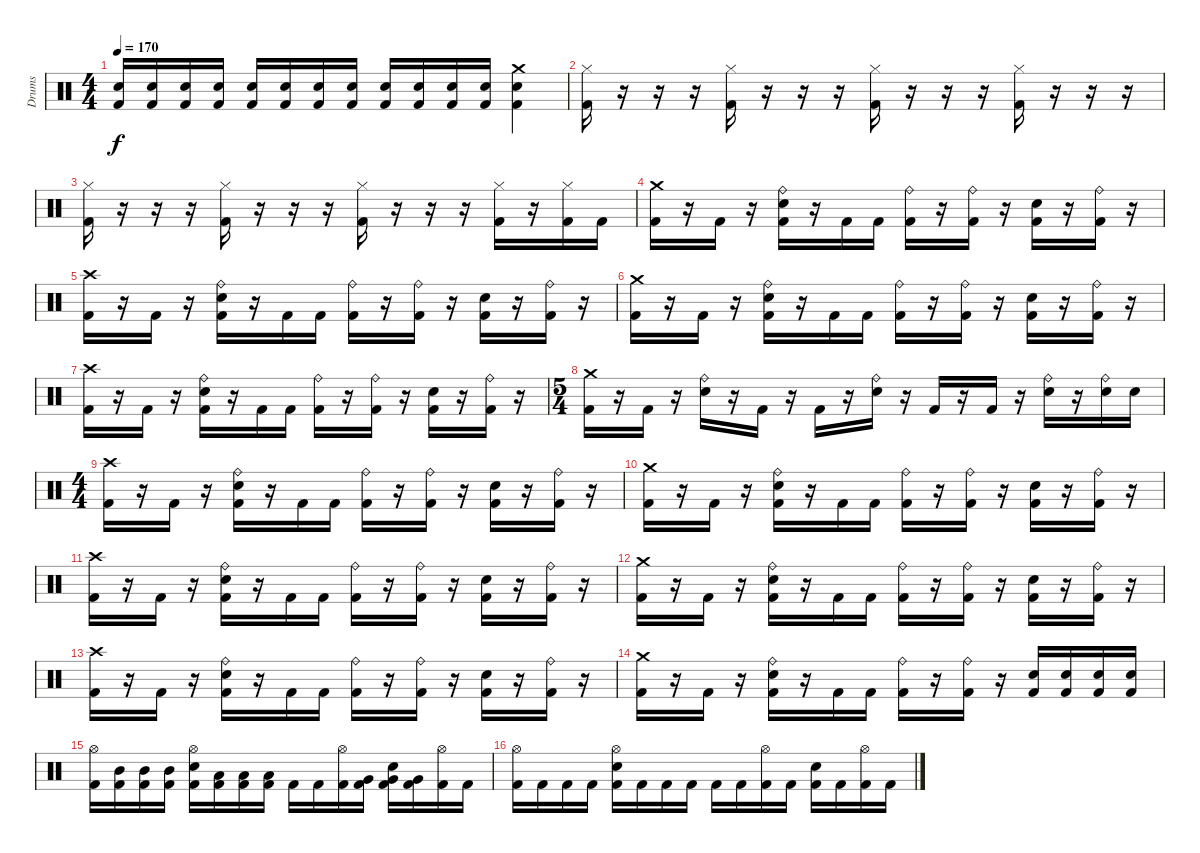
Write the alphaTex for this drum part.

\track ("Drums" "Drums") {instrument percussion}
\staff {score}
\articulation defaults
\ts (4 4)
\tempo 170
\clef neutral
\ks c
("Electric Snare (hit)" "Kick (hit) 2").16{dy f} ("Electric Snare (hit)" "Kick (hit) 2").16 ("Electric Snare (hit)" "Kick (hit) 2").16 ("Electric Snare (hit)" "Kick (hit) 2").16 ("Electric Snare (hit)" "Kick (hit) 2").16 ("Electric Snare (hit)" "Kick (hit) 2").16 ("Electric Snare (hit)" "Kick (hit) 2").16 ("Electric Snare (hit)" "Kick (hit) 2").16 ("Electric Snare (hit)" "Kick (hit) 2").16 ("Electric Snare (hit)" "Kick (hit) 2").16 ("Electric Snare (hit)" "Kick (hit) 2").16 ("Electric Snare (hit)" "Kick (hit) 2").16 ("Crash medium (hit)" "Electric Snare (hit)" "Kick (hit) 2").4 |
("Hi-Hat (closed)" "Kick (hit) 2").16 r.16 r.16 r.16 ("Hi-Hat (closed)" "Kick (hit) 2").16 r.16 r.16 r.16 ("Hi-Hat (closed)" "Kick (hit) 2").16 r.16 r.16 r.16 ("Hi-Hat (closed)" "Kick (hit) 2").16 r.16 r.16 r.16 |
("Hi-Hat (closed)" "Kick (hit) 2").16 r.16 r.16 r.16 ("Hi-Hat (closed)" "Kick (hit) 2").16 r.16 r.16 r.16 ("Hi-Hat (closed)" "Kick (hit) 2").16 r.16 r.16 r.16 ("Hi-Hat (closed)" "Kick (hit) 2").16 r.16 ("Hi-Hat (closed)" "Kick (hit) 2").16 "Kick (hit) 2".16 |
("Crash medium (hit)" "Kick (hit) 2").16 r.16 "Kick (hit) 2".16 r.16 ("Ride (bell)" "Electric Snare (hit)" "Kick (hit) 2").16 r.16 "Kick (hit) 2".16 "Kick (hit) 2".16 ("Ride (bell)" "Kick (hit) 2").16 r.16 ("Ride (bell)" "Kick (hit) 2").16 r.16 ("Electric Snare (hit)" "Kick (hit) 2").16 r.16 ("Ride (bell)" "Kick (hit) 2").16 r.16 |
("Crash high (hit)" "Kick (hit) 2").16 r.16 "Kick (hit) 2".16 r.16 ("Ride (bell)" "Electric Snare (hit)" "Kick (hit) 2").16 r.16 "Kick (hit) 2".16 "Kick (hit) 2".16 ("Ride (bell)" "Kick (hit) 2").16 r.16 ("Ride (bell)" "Kick (hit) 2").16 r.16 ("Electric Snare (hit)" "Kick (hit) 2").16 r.16 ("Ride (bell)" "Kick (hit) 2").16 r.16 |
("Crash medium (hit)" "Kick (hit) 2").16 r.16 "Kick (hit) 2".16 r.16 ("Ride (bell)" "Electric Snare (hit)" "Kick (hit) 2").16 r.16 "Kick (hit) 2".16 "Kick (hit) 2".16 ("Ride (bell)" "Kick (hit) 2").16 r.16 ("Ride (bell)" "Kick (hit) 2").16 r.16 ("Electric Snare (hit)" "Kick (hit) 2").16 r.16 ("Ride (bell)" "Kick (hit) 2").16 r.16 |
("Crash high (hit)" "Kick (hit) 2").16 r.16 "Kick (hit) 2".16 r.16 ("Ride (bell)" "Electric Snare (hit)" "Kick (hit) 2").16 r.16 "Kick (hit) 2".16 "Kick (hit) 2".16 ("Ride (bell)" "Kick (hit) 2").16 r.16 ("Ride (bell)" "Kick (hit) 2").16 r.16 ("Electric Snare (hit)" "Kick (hit) 2").16 r.16 ("Ride (bell)" "Kick (hit) 2").16 r.16 |
\ts (5 4)
("Crash medium (hit)" "Kick (hit) 2").16 r.16 "Kick (hit) 2".16 r.16 ("Ride (bell)" "Electric Snare (hit)").16 r.16 "Kick (hit) 2".16 r.16 "Kick (hit) 2".16 r.16 ("Ride (bell)" "Electric Snare (hit)").16 r.16 "Kick (hit) 2".16 r.16 "Kick (hit) 2".16 r.16 ("Ride (bell)" "Electric Snare (hit)").16 r.16 ("Ride (bell)" "Electric Snare (hit)").16 "Electric Snare (hit)".16 |
\ts (4 4)
("Crash high (hit)" "Kick (hit) 2").16 r.16 "Kick (hit) 2".16 r.16 ("Ride (bell)" "Electric Snare (hit)" "Kick (hit) 2").16 r.16 "Kick (hit) 2".16 "Kick (hit) 2".16 ("Ride (bell)" "Kick (hit) 2").16 r.16 ("Ride (bell)" "Kick (hit) 2").16 r.16 ("Electric Snare (hit)" "Kick (hit) 2").16 r.16 ("Ride (bell)" "Kick (hit) 2").16 r.16 |
("Crash medium (hit)" "Kick (hit) 2").16 r.16 "Kick (hit) 2".16 r.16 ("Ride (bell)" "Electric Snare (hit)" "Kick (hit) 2").16 r.16 "Kick (hit) 2".16 "Kick (hit) 2".16 ("Ride (bell)" "Kick (hit) 2").16 r.16 ("Ride (bell)" "Kick (hit) 2").16 r.16 ("Electric Snare (hit)" "Kick (hit) 2").16 r.16 ("Ride (bell)" "Kick (hit) 2").16 r.16 |
("Crash high (hit)" "Kick (hit) 2").16 r.16 "Kick (hit) 2".16 r.16 ("Ride (bell)" "Electric Snare (hit)" "Kick (hit) 2").16 r.16 "Kick (hit) 2".16 "Kick (hit) 2".16 ("Ride (bell)" "Kick (hit) 2").16 r.16 ("Ride (bell)" "Kick (hit) 2").16 r.16 ("Electric Snare (hit)" "Kick (hit) 2").16 r.16 ("Ride (bell)" "Kick (hit) 2").16 r.16 |
("Crash medium (hit)" "Kick (hit) 2").16 r.16 "Kick (hit) 2".16 r.16 ("Ride (bell)" "Electric Snare (hit)" "Kick (hit) 2").16 r.16 "Kick (hit) 2".16 "Kick (hit) 2".16 ("Ride (bell)" "Kick (hit) 2").16 r.16 ("Ride (bell)" "Kick (hit) 2").16 r.16 ("Electric Snare (hit)" "Kick (hit) 2").16 r.16 ("Ride (bell)" "Kick (hit) 2").16 r.16 |
("Crash high (hit)" "Kick (hit) 2").16 r.16 "Kick (hit) 2".16 r.16 ("Ride (bell)" "Electric Snare (hit)" "Kick (hit) 2").16 r.16 "Kick (hit) 2".16 "Kick (hit) 2".16 ("Ride (bell)" "Kick (hit) 2").16 r.16 ("Ride (bell)" "Kick (hit) 2").16 r.16 ("Electric Snare (hit)" "Kick (hit) 2").16 r.16 ("Ride (bell)" "Kick (hit) 2").16 r.16 |
("Crash medium (hit)" "Kick (hit) 2").16 r.16 "Kick (hit) 2".16 r.16 ("Ride (bell)" "Electric Snare (hit)" "Kick (hit) 2").16 r.16 "Kick (hit) 2".16 "Kick (hit) 2".16 ("Ride (bell)" "Kick (hit) 2").16 r.16 ("Ride (bell)" "Kick (hit) 2").16 r.16 ("Electric Snare (hit)" "Kick (hit) 2").16 ("Electric Snare (hit)" "Kick (hit) 2").16 ("Electric Snare (hit)" "Kick (hit) 2").16 ("Electric Snare (hit)" "Kick (hit) 2").16 |
("Hi-Hat (open)" "Kick (hit) 2").16 ("Mid Tom (hit)" "Kick (hit) 2").16 ("Mid Tom (hit)" "Kick (hit) 2").16 ("Mid Tom (hit)" "Kick (hit) 2").16 ("Hi-Hat (open)" "Electric Snare (hit)" "Kick (hit) 2").16 ("Low Tom (hit)" "Kick (hit) 2").16 ("Low Tom (hit)" "Kick (hit) 2").16 ("Low Tom (hit)" "Kick (hit) 2").16 "Kick (hit) 2".16 "Kick (hit) 2".16 ("Hi-Hat (open)" "Kick (hit) 2").16 ("Very Low Tom (hit)" "Kick (hit) 2").16 ("Very Low Tom (hit)" "Electric Snare (hit)" "Kick (hit) 2").16 ("Very Low Tom (hit)" "Kick (hit) 2").16 ("Hi-Hat (open)" "Kick (hit) 2").16 "Kick (hit) 2".16 |
("Hi-Hat (open)" "Kick (hit) 2").16 "Kick (hit) 2".16 "Kick (hit) 2".16 "Kick (hit) 2".16 ("Hi-Hat (open)" "Electric Snare (hit)" "Kick (hit) 2").16 "Kick (hit) 2".16 "Kick (hit) 2".16 "Kick (hit) 2".16 "Kick (hit) 2".16 "Kick (hit) 2".16 ("Hi-Hat (open)" "Kick (hit) 2").16 "Kick (hit) 2".16 ("Electric Snare (hit)" "Kick (hit) 2").16 "Kick (hit) 2".16 ("Hi-Hat (open)" "Kick (hit) 2").16 "Kick (hit) 2".16
